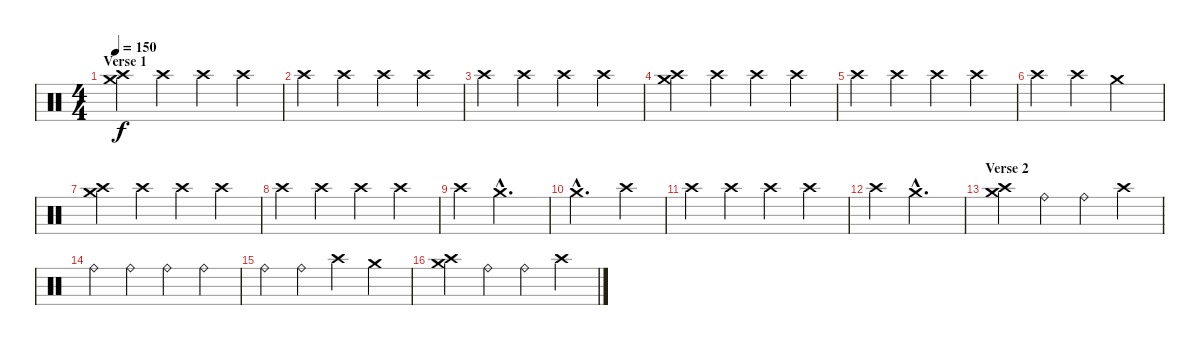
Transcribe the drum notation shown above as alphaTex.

\track "" {instrument percussion}
\staff {score}
\articulation defaults
\ts (4 4)
\section ("" "Verse 1")
\tempo 150
\clef neutral
\ks c
("Crash medium (hit)" "Crash high (hit)").4{dy f} "Crash high (hit)".4 "Crash high (hit)".4 "Crash high (hit)".4 |
"Crash high (hit)".4 "Crash high (hit)".4 "Crash high (hit)".4 "Crash high (hit)".4 |
"Crash high (hit)".4 "Crash high (hit)".4 "Crash high (hit)".4 "Crash high (hit)".4 |
("Crash medium (hit)" "Crash high (hit)").4 "Crash high (hit)".4 "Crash high (hit)".4 "Crash high (hit)".4 |
"Crash high (hit)".4 "Crash high (hit)".4 "Crash high (hit)".4 "Crash high (hit)".4 |
"Crash high (hit)".4 "Crash high (hit)".4 "Crash medium (hit)".2 |
("Crash medium (hit)" "Crash high (hit)").4 "Crash high (hit)".4 "Crash high (hit)".4 "Crash high (hit)".4 |
"Crash high (hit)".4 "Crash high (hit)".4 "Crash high (hit)".4 "Crash high (hit)".4 |
"Crash high (hit)".4 "Crash medium (hit)"{hac}.2{d} |
"Crash medium (hit)"{hac}.2{d} "Crash high (hit)".4 |
"Crash high (hit)".4 "Crash high (hit)".4 "Crash high (hit)".4 "Crash high (hit)".4 |
"Crash high (hit)".4 "Crash medium (hit)"{hac}.2{d} |
\section ("" "Verse 2")
("Crash medium (hit)" "Crash high (hit)").4 "Ride (bell)".4 "Ride (bell)".4 "Crash high (hit)".4 |
"Ride (bell)".4 "Ride (bell)".4 "Ride (bell)".4 "Ride (bell)".4 |
"Ride (bell)".4 "Ride (bell)".4 "Crash high (hit)".4 "Crash medium (hit)".4 |
("Crash medium (hit)" "Crash high (hit)").4 "Ride (bell)".4 "Ride (bell)".4 "Crash high (hit)".4
